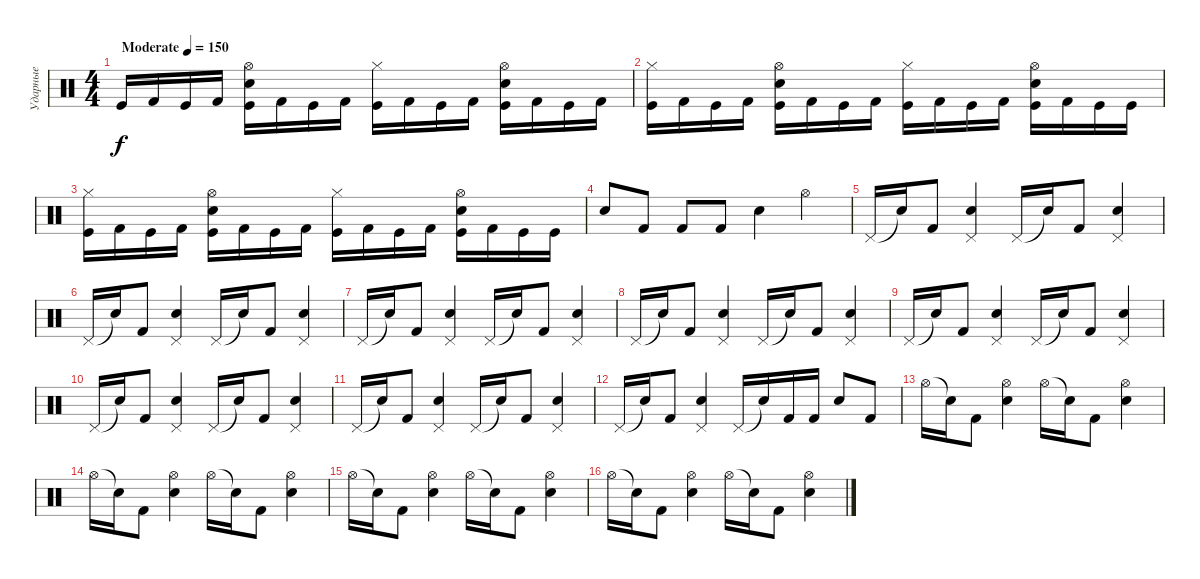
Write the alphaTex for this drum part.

\track ("Ударные" "Ударные") {instrument percussion bank 25}
\staff {score}
\articulation defaults
\ts (4 4)
\tempo (150 "Moderate")
\clef neutral
\ks c "Kick (hit)".16{dy f} "Kick (hit) 2".16 "Kick (hit)".16 "Kick (hit) 2".16
("Kick (hit)" "Electric Snare (hit)" "Hi-Hat (open)").16 "Kick (hit) 2".16 "Kick (hit)".16 "Kick (hit) 2".16 ("Kick (hit)" "Hi-Hat (closed)").16 "Kick (hit) 2".16 "Kick (hit)".16 "Kick (hit) 2".16 ("Kick (hit)" "Electric Snare (hit)" "Hi-Hat (open)").16 "Kick (hit) 2".16 "Kick (hit)".16 "Kick (hit) 2".16 |
("Kick (hit)" "Hi-Hat (closed)").16 "Kick (hit) 2".16 "Kick (hit)".16 "Kick (hit) 2".16 ("Kick (hit)" "Electric Snare (hit)" "Hi-Hat (open)").16 "Kick (hit) 2".16 "Kick (hit)".16 "Kick (hit) 2".16 ("Kick (hit)" "Hi-Hat (closed)").16 "Kick (hit) 2".16 "Kick (hit)".16 "Kick (hit) 2".16 ("Kick (hit)" "Electric Snare (hit)" "Hi-Hat (open)").16 "Kick (hit) 2".16 "Kick (hit)".16 "Kick (hit)".16 |
("Kick (hit)" "Hi-Hat (closed)").16 "Kick (hit) 2".16 "Kick (hit)".16 "Kick (hit) 2".16 ("Kick (hit)" "Electric Snare (hit)" "Hi-Hat (open)").16 "Kick (hit) 2".16 "Kick (hit)".16 "Kick (hit) 2".16 ("Kick (hit)" "Hi-Hat (closed)").16 "Kick (hit) 2".16 "Kick (hit)".16 "Kick (hit) 2".16 ("Kick (hit)" "Electric Snare (hit)" "Hi-Hat (open)").16 "Kick (hit) 2".16 "Kick (hit)".16 "Kick (hit)".16 |
"Electric Snare (hit)".8 "Kick (hit) 2".8 "Kick (hit) 2".8 "Kick (hit) 2".8 "Snare (hit) 2".4 "Hi-Hat (open)".4 |
"Pedal Hi-Hat (hit)".16 "Snare (hit)"{t}.16 "Kick (hit) 2".8 ("Snare (hit) 2" "Pedal Hi-Hat (hit)").4 "Pedal Hi-Hat (hit)".16 "Snare (hit)"{t}.16 "Kick (hit) 2".8 ("Snare (hit) 2" "Pedal Hi-Hat (hit)").4 |
"Pedal Hi-Hat (hit)".16 "Snare (hit)"{t}.16 "Kick (hit) 2".8 ("Snare (hit) 2" "Pedal Hi-Hat (hit)").4 "Pedal Hi-Hat (hit)".16 "Snare (hit)"{t}.16 "Kick (hit) 2".8 ("Snare (hit) 2" "Pedal Hi-Hat (hit)").4 |
"Pedal Hi-Hat (hit)".16 "Snare (hit)"{t}.16 "Kick (hit) 2".8 ("Snare (hit) 2" "Pedal Hi-Hat (hit)").4 "Pedal Hi-Hat (hit)".16 "Snare (hit)"{t}.16 "Kick (hit) 2".8 ("Snare (hit) 2" "Pedal Hi-Hat (hit)").4 |
"Pedal Hi-Hat (hit)".16 "Snare (hit)"{t}.16 "Kick (hit) 2".8 ("Snare (hit) 2" "Pedal Hi-Hat (hit)").4 "Pedal Hi-Hat (hit)".16 "Snare (hit)"{t}.16 "Kick (hit) 2".8 ("Snare (hit) 2" "Pedal Hi-Hat (hit)").4 |
"Pedal Hi-Hat (hit)".16 "Snare (hit)"{t}.16 "Kick (hit) 2".8 ("Snare (hit) 2" "Pedal Hi-Hat (hit)").4 "Pedal Hi-Hat (hit)".16 "Snare (hit)"{t}.16 "Kick (hit) 2".8 ("Snare (hit) 2" "Pedal Hi-Hat (hit)").4 |
"Pedal Hi-Hat (hit)".16 "Snare (hit)"{t}.16 "Kick (hit) 2".8 ("Snare (hit) 2" "Pedal Hi-Hat (hit)").4 "Pedal Hi-Hat (hit)".16 "Snare (hit)"{t}.16 "Kick (hit) 2".8 ("Snare (hit) 2" "Pedal Hi-Hat (hit)").4 |
"Pedal Hi-Hat (hit)".16 "Snare (hit)"{t}.16 "Kick (hit) 2".8 ("Snare (hit) 2" "Pedal Hi-Hat (hit)").4 "Pedal Hi-Hat (hit)".16 "Snare (hit)"{t}.16 "Kick (hit) 2".8 ("Snare (hit) 2" "Pedal Hi-Hat (hit)").4 |
"Pedal Hi-Hat (hit)".16 "Snare (hit)"{t}.16 "Kick (hit) 2".8 ("Snare (hit) 2" "Pedal Hi-Hat (hit)").4 "Pedal Hi-Hat (hit)".16 "Snare (hit)"{t}.16 "Kick (hit) 2".16 "Kick (hit) 2".16 "Electric Snare (hit)".8 "Kick (hit) 2".8 |
"Hi-Hat (open)".16 "Snare (hit)"{t}.16 "Kick (hit) 2".8 ("Snare (hit) 2" "Hi-Hat (open)").4 "Hi-Hat (open)".16 "Snare (hit)"{t}.16 "Kick (hit) 2".8 ("Snare (hit) 2" "Hi-Hat (open)").4 |
"Hi-Hat (open)".16 "Snare (hit)"{t}.16 "Kick (hit) 2".8 ("Snare (hit) 2" "Hi-Hat (open)").4 "Hi-Hat (open)".16 "Snare (hit)"{t}.16 "Kick (hit) 2".8 ("Snare (hit) 2" "Hi-Hat (open)").4 |
"Hi-Hat (open)".16 "Snare (hit)"{t}.16 "Kick (hit) 2".8 ("Snare (hit) 2" "Hi-Hat (open)").4 "Hi-Hat (open)".16 "Snare (hit)"{t}.16 "Kick (hit) 2".8 ("Snare (hit) 2" "Hi-Hat (open)").4 |
"Hi-Hat (open)".16 "Snare (hit)"{t}.16 "Kick (hit) 2".8 ("Snare (hit) 2" "Hi-Hat (open)").4 "Hi-Hat (open)".16 "Snare (hit)"{t}.16 "Kick (hit) 2".8 ("Snare (hit) 2" "Hi-Hat (open)").4
